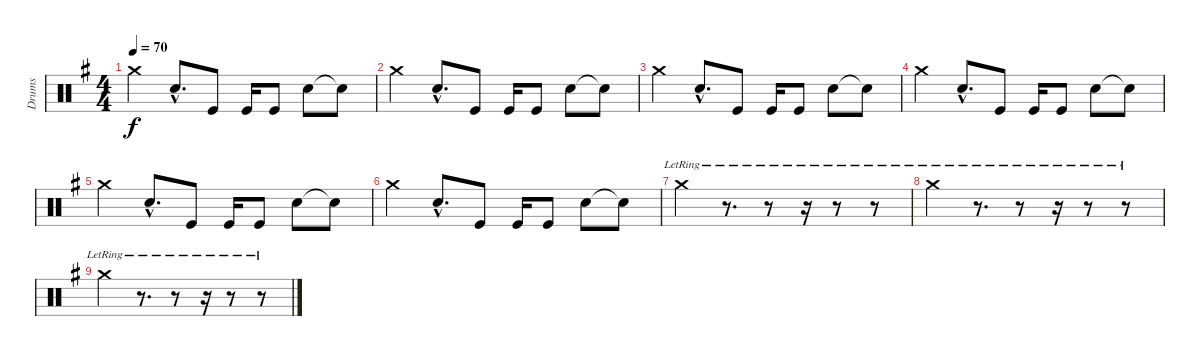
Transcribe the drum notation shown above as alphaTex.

\track ("Drums" "Drums") {instrument percussion}
\staff {score}
\articulation defaults
\ts (4 4)
\tempo 70
\clef neutral
\ks g "Crash medium (hit)".4{dy f} "Snare (hit) 2"{hac}.8{d} "Kick (hit)".8 "Kick (hit)".16 "Kick (hit)".8 "Snare (hit) 2".8 "Snare (hit) 2"{t}.8
|
"Crash medium (hit)".4 "Snare (hit) 2"{hac}.8{d} "Kick (hit)".8 "Kick (hit)".16 "Kick (hit)".8 "Snare (hit) 2".8 "Snare (hit) 2"{t}.8 |
"Crash medium (hit)".4 "Snare (hit) 2"{hac}.8{d} "Kick (hit)".8 "Kick (hit)".16 "Kick (hit)".8 "Snare (hit) 2".8 "Snare (hit) 2"{t}.8 |
"Crash medium (hit)".4 "Snare (hit) 2"{hac}.8{d} "Kick (hit)".8 "Kick (hit)".16 "Kick (hit)".8 "Snare (hit) 2".8 "Snare (hit) 2"{t}.8 |
"Crash medium (hit)".4 "Snare (hit) 2"{hac}.8{d} "Kick (hit)".8 "Kick (hit)".16 "Kick (hit)".8 "Snare (hit) 2".8 "Snare (hit) 2"{t}.8 |
"Crash medium (hit)".4 "Snare (hit) 2"{hac}.8{d} "Kick (hit)".8 "Kick (hit)".16 "Kick (hit)".8 "Snare (hit) 2".8 "Snare (hit) 2"{t}.8 |
"Crash medium (hit)"{lr}.4 r.8{d} r.8 r.16 r.8 r.8 |
"Crash medium (hit)"{lr}.4 r.8{d} r.8 r.16 r.8 r.8 |
"Crash medium (hit)"{lr}.4 r.8{d} r.8 r.16 r.8 r.8
